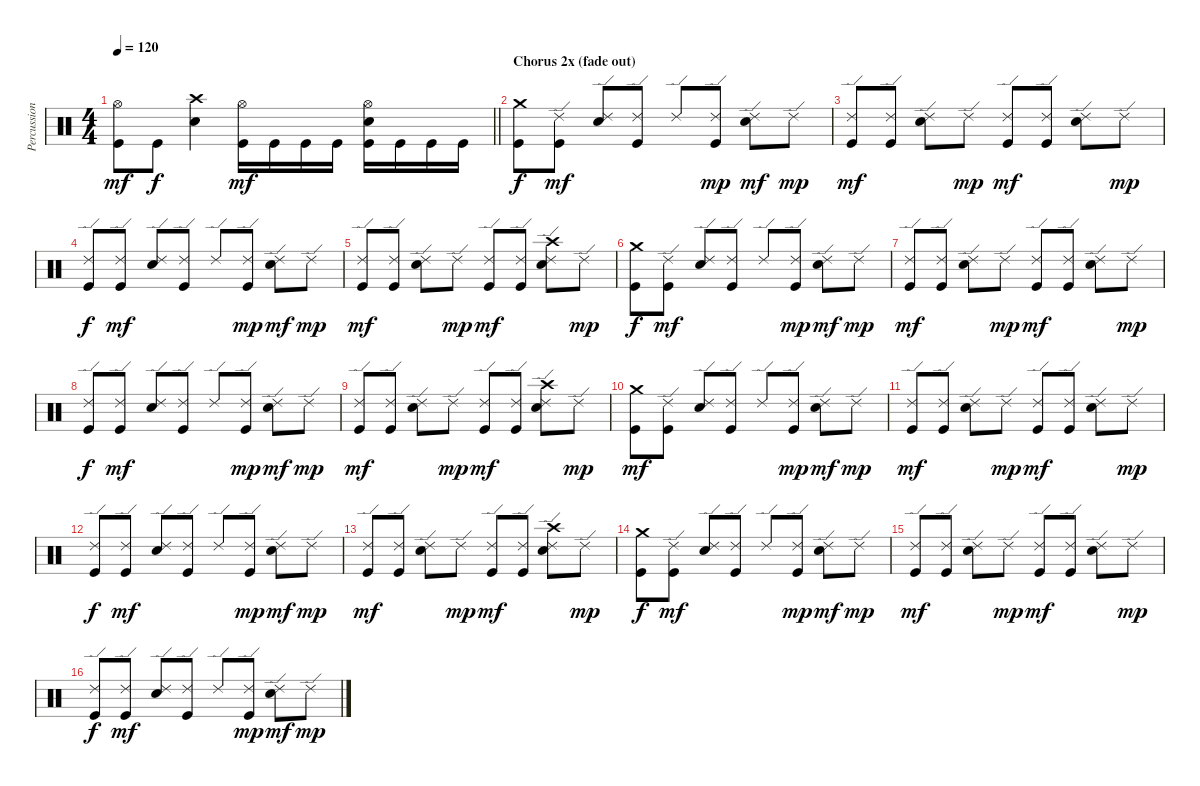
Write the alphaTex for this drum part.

\track ("Percussion" "Percussion") {instrument percussion}
\staff {score}
\articulation defaults
\ts (4 4)
\tempo 120
\clef neutral
\barLineRight lightlight
\ks c
("Hi-Hat (open)" "Kick (hit)").8{dy mf} "Kick (hit)".8{dy f} ("Crash high (hit)" "Electric Snare (hit)").4 ("Hi-Hat (open)" "Kick (hit)").16{dy mf} "Kick (hit)".16 "Kick (hit)".16 "Kick (hit)".16 ("Hi-Hat (open)" "Electric Snare (hit)" "Kick (hit)").16 "Kick (hit)".16 "Kick (hit)".16 "Kick (hit)".16 |
\section ("" "Chorus 2x (fade out)")
("Crash medium (hit)" "Kick (hit)").8{dy f} ("Ride (edge) 2" "Kick (hit)").8{dy mf} ("Ride (edge) 2" "Electric Snare (hit)").8 ("Ride (edge) 2" "Kick (hit)").8 "Ride (edge) 2".8 ("Ride (edge) 2" "Kick (hit)").8{dy mp} ("Ride (edge) 2" "Electric Snare (hit)").8{dy mf} "Ride (edge) 2".8{dy mp} |
("Ride (edge) 2" "Kick (hit)").8{dy mf} ("Ride (edge) 2" "Kick (hit)").8 ("Ride (edge) 2" "Electric Snare (hit)").8 "Ride (edge) 2".8{dy mp} ("Ride (edge) 2" "Kick (hit)").8{dy mf} ("Ride (edge) 2" "Kick (hit)").8 ("Ride (edge) 2" "Electric Snare (hit)").8 "Ride (edge) 2".8{dy mp} |
("Ride (edge) 2" "Kick (hit)").8{dy f} ("Ride (edge) 2" "Kick (hit)").8{dy mf} ("Ride (edge) 2" "Electric Snare (hit)").8 ("Ride (edge) 2" "Kick (hit)").8 "Ride (edge) 2".8 ("Ride (edge) 2" "Kick (hit)").8{dy mp} ("Ride (edge) 2" "Electric Snare (hit)").8{dy mf} "Ride (edge) 2".8{dy mp} |
("Ride (edge) 2" "Kick (hit)").8{dy mf} ("Ride (edge) 2" "Kick (hit)").8 ("Ride (edge) 2" "Electric Snare (hit)").8 "Ride (edge) 2".8{dy mp} ("Ride (edge) 2" "Kick (hit)").8{dy mf} ("Ride (edge) 2" "Kick (hit)").8 ("Ride (edge) 2" "Crash high (hit)" "Electric Snare (hit)").8 "Ride (edge) 2".8{dy mp} |
("Crash medium (hit)" "Kick (hit)").8{dy f} ("Ride (edge) 2" "Kick (hit)").8{dy mf} ("Ride (edge) 2" "Electric Snare (hit)").8 ("Ride (edge) 2" "Kick (hit)").8 "Ride (edge) 2".8 ("Ride (edge) 2" "Kick (hit)").8{dy mp} ("Ride (edge) 2" "Electric Snare (hit)").8{dy mf} "Ride (edge) 2".8{dy mp} |
("Ride (edge) 2" "Kick (hit)").8{dy mf} ("Ride (edge) 2" "Kick (hit)").8 ("Ride (edge) 2" "Electric Snare (hit)").8 "Ride (edge) 2".8{dy mp} ("Ride (edge) 2" "Kick (hit)").8{dy mf} ("Ride (edge) 2" "Kick (hit)").8 ("Ride (edge) 2" "Electric Snare (hit)").8 "Ride (edge) 2".8{dy mp} |
("Ride (edge) 2" "Kick (hit)").8{dy f} ("Ride (edge) 2" "Kick (hit)").8{dy mf} ("Ride (edge) 2" "Electric Snare (hit)").8 ("Ride (edge) 2" "Kick (hit)").8 "Ride (edge) 2".8 ("Ride (edge) 2" "Kick (hit)").8{dy mp} ("Ride (edge) 2" "Electric Snare (hit)").8{dy mf} "Ride (edge) 2".8{dy mp} |
("Ride (edge) 2" "Kick (hit)").8{dy mf} ("Ride (edge) 2" "Kick (hit)").8 ("Ride (edge) 2" "Electric Snare (hit)").8 "Ride (edge) 2".8{dy mp} ("Ride (edge) 2" "Kick (hit)").8{dy mf} ("Ride (edge) 2" "Kick (hit)").8 ("Ride (edge) 2" "Crash high (hit)" "Electric Snare (hit)").8 "Ride (edge) 2".8{dy mp} |
("Crash medium (hit)" "Kick (hit)").8{dy mf} ("Ride (edge) 2" "Kick (hit)").8 ("Ride (edge) 2" "Electric Snare (hit)").8 ("Ride (edge) 2" "Kick (hit)").8 "Ride (edge) 2".8 ("Ride (edge) 2" "Kick (hit)").8{dy mp} ("Ride (edge) 2" "Electric Snare (hit)").8{dy mf} "Ride (edge) 2".8{dy mp} |
("Ride (edge) 2" "Kick (hit)").8{dy mf} ("Ride (edge) 2" "Kick (hit)").8 ("Ride (edge) 2" "Electric Snare (hit)").8 "Ride (edge) 2".8{dy mp} ("Ride (edge) 2" "Kick (hit)").8{dy mf} ("Ride (edge) 2" "Kick (hit)").8 ("Ride (edge) 2" "Electric Snare (hit)").8 "Ride (edge) 2".8{dy mp} |
("Ride (edge) 2" "Kick (hit)").8{dy f} ("Ride (edge) 2" "Kick (hit)").8{dy mf} ("Ride (edge) 2" "Electric Snare (hit)").8 ("Ride (edge) 2" "Kick (hit)").8 "Ride (edge) 2".8 ("Ride (edge) 2" "Kick (hit)").8{dy mp} ("Ride (edge) 2" "Electric Snare (hit)").8{dy mf} "Ride (edge) 2".8{dy mp} |
("Ride (edge) 2" "Kick (hit)").8{dy mf} ("Ride (edge) 2" "Kick (hit)").8 ("Ride (edge) 2" "Electric Snare (hit)").8 "Ride (edge) 2".8{dy mp} ("Ride (edge) 2" "Kick (hit)").8{dy mf} ("Ride (edge) 2" "Kick (hit)").8 ("Ride (edge) 2" "Crash high (hit)" "Electric Snare (hit)").8 "Ride (edge) 2".8{dy mp} |
("Crash medium (hit)" "Kick (hit)").8{dy f} ("Ride (edge) 2" "Kick (hit)").8{dy mf} ("Ride (edge) 2" "Electric Snare (hit)").8 ("Ride (edge) 2" "Kick (hit)").8 "Ride (edge) 2".8 ("Ride (edge) 2" "Kick (hit)").8{dy mp} ("Ride (edge) 2" "Electric Snare (hit)").8{dy mf} "Ride (edge) 2".8{dy mp} |
("Ride (edge) 2" "Kick (hit)").8{dy mf} ("Ride (edge) 2" "Kick (hit)").8 ("Ride (edge) 2" "Electric Snare (hit)").8 "Ride (edge) 2".8{dy mp} ("Ride (edge) 2" "Kick (hit)").8{dy mf} ("Ride (edge) 2" "Kick (hit)").8 ("Ride (edge) 2" "Electric Snare (hit)").8 "Ride (edge) 2".8{dy mp} |
("Ride (edge) 2" "Kick (hit)").8{dy f} ("Ride (edge) 2" "Kick (hit)").8{dy mf} ("Ride (edge) 2" "Electric Snare (hit)").8 ("Ride (edge) 2" "Kick (hit)").8 "Ride (edge) 2".8 ("Ride (edge) 2" "Kick (hit)").8{dy mp} ("Ride (edge) 2" "Electric Snare (hit)").8{dy mf} "Ride (edge) 2".8{dy mp}
